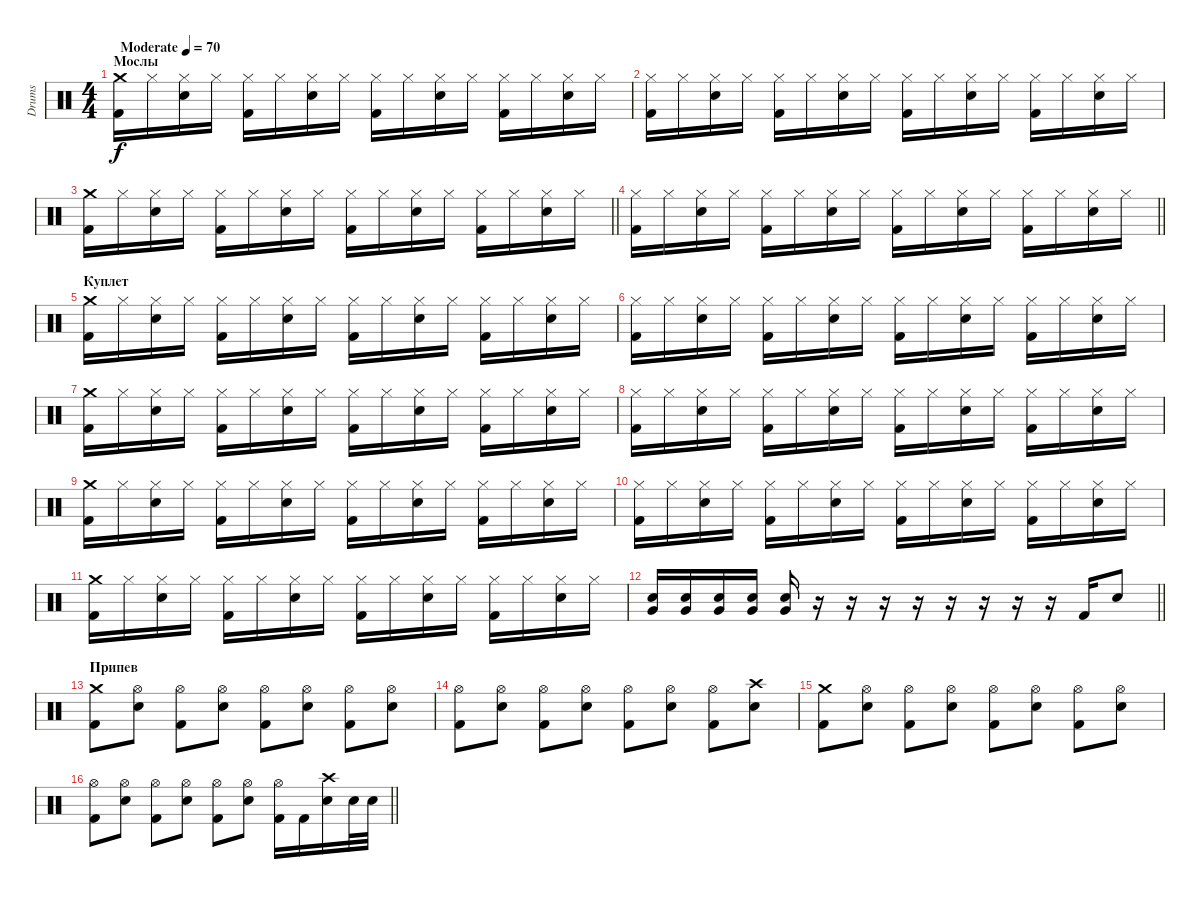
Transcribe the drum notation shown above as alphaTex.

\track ("Drums" "Drums") {instrument percussion}
\staff {score}
\articulation defaults
\ts (4 4)
\section ("" "Мослы")
\tempo (70 "Moderate")
\clef neutral
\ks c
("Crash medium (hit)" "Kick (hit) 2").16{dy f} "Hi-Hat (closed)".16 ("Hi-Hat (closed)" "Snare (hit) 2").16 "Hi-Hat (closed)".16 ("Hi-Hat (closed)" "Kick (hit) 2").16 "Hi-Hat (closed)".16 ("Hi-Hat (closed)" "Snare (hit) 2").16 "Hi-Hat (closed)".16 ("Hi-Hat (closed)" "Kick (hit) 2").16 "Hi-Hat (closed)".16 ("Hi-Hat (closed)" "Snare (hit) 2").16 "Hi-Hat (closed)".16 ("Hi-Hat (closed)" "Kick (hit) 2").16 "Hi-Hat (closed)".16 ("Hi-Hat (closed)" "Snare (hit) 2").16 "Hi-Hat (closed)".16 |
("Hi-Hat (closed)" "Kick (hit) 2").16 "Hi-Hat (closed)".16 ("Hi-Hat (closed)" "Snare (hit) 2").16 "Hi-Hat (closed)".16 ("Hi-Hat (closed)" "Kick (hit) 2").16 "Hi-Hat (closed)".16 ("Hi-Hat (closed)" "Snare (hit) 2").16 "Hi-Hat (closed)".16 ("Hi-Hat (closed)" "Kick (hit) 2").16 "Hi-Hat (closed)".16 ("Hi-Hat (closed)" "Snare (hit) 2").16 "Hi-Hat (closed)".16 ("Hi-Hat (closed)" "Kick (hit) 2").16 "Hi-Hat (closed)".16 ("Hi-Hat (closed)" "Snare (hit) 2").16 "Hi-Hat (closed)".16 |
\barLineRight lightlight
("Crash medium (hit)" "Kick (hit) 2").16 "Hi-Hat (closed)".16 ("Hi-Hat (closed)" "Snare (hit) 2").16 "Hi-Hat (closed)".16 ("Hi-Hat (closed)" "Kick (hit) 2").16 "Hi-Hat (closed)".16 ("Hi-Hat (closed)" "Snare (hit) 2").16 "Hi-Hat (closed)".16 ("Hi-Hat (closed)" "Kick (hit) 2").16 "Hi-Hat (closed)".16 ("Hi-Hat (closed)" "Snare (hit) 2").16 "Hi-Hat (closed)".16 ("Hi-Hat (closed)" "Kick (hit) 2").16 "Hi-Hat (closed)".16 ("Hi-Hat (closed)" "Snare (hit) 2").16 "Hi-Hat (closed)".16 |
\barLineRight lightlight
("Hi-Hat (closed)" "Kick (hit) 2").16 "Hi-Hat (closed)".16 ("Hi-Hat (closed)" "Snare (hit) 2").16 "Hi-Hat (closed)".16 ("Hi-Hat (closed)" "Kick (hit) 2").16 "Hi-Hat (closed)".16 ("Hi-Hat (closed)" "Snare (hit) 2").16 "Hi-Hat (closed)".16 ("Hi-Hat (closed)" "Kick (hit) 2").16 "Hi-Hat (closed)".16 ("Hi-Hat (closed)" "Snare (hit) 2").16 "Hi-Hat (closed)".16 ("Hi-Hat (closed)" "Kick (hit) 2").16 "Hi-Hat (closed)".16 ("Hi-Hat (closed)" "Snare (hit) 2").16 "Hi-Hat (closed)".16 |
\section ("" "Куплет")
("Crash medium (hit)" "Kick (hit) 2").16 "Hi-Hat (closed)".16 ("Hi-Hat (closed)" "Snare (hit) 2").16 "Hi-Hat (closed)".16 ("Hi-Hat (closed)" "Kick (hit) 2").16 "Hi-Hat (closed)".16 ("Hi-Hat (closed)" "Snare (hit) 2").16 "Hi-Hat (closed)".16 ("Hi-Hat (closed)" "Kick (hit) 2").16 "Hi-Hat (closed)".16 ("Hi-Hat (closed)" "Snare (hit) 2").16 "Hi-Hat (closed)".16 ("Hi-Hat (closed)" "Kick (hit) 2").16 "Hi-Hat (closed)".16 ("Hi-Hat (closed)" "Snare (hit) 2").16 "Hi-Hat (closed)".16 |
("Hi-Hat (closed)" "Kick (hit) 2").16 "Hi-Hat (closed)".16 ("Hi-Hat (closed)" "Snare (hit) 2").16 "Hi-Hat (closed)".16 ("Hi-Hat (closed)" "Kick (hit) 2").16 "Hi-Hat (closed)".16 ("Hi-Hat (closed)" "Snare (hit) 2").16 "Hi-Hat (closed)".16 ("Hi-Hat (closed)" "Kick (hit) 2").16 "Hi-Hat (closed)".16 ("Hi-Hat (closed)" "Snare (hit) 2").16 "Hi-Hat (closed)".16 ("Hi-Hat (closed)" "Kick (hit) 2").16 "Hi-Hat (closed)".16 ("Hi-Hat (closed)" "Snare (hit) 2").16 "Hi-Hat (closed)".16 |
("Crash medium (hit)" "Kick (hit) 2").16 "Hi-Hat (closed)".16 ("Hi-Hat (closed)" "Snare (hit) 2").16 "Hi-Hat (closed)".16 ("Hi-Hat (closed)" "Kick (hit) 2").16 "Hi-Hat (closed)".16 ("Hi-Hat (closed)" "Snare (hit) 2").16 "Hi-Hat (closed)".16 ("Hi-Hat (closed)" "Kick (hit) 2").16 "Hi-Hat (closed)".16 ("Hi-Hat (closed)" "Snare (hit) 2").16 "Hi-Hat (closed)".16 ("Hi-Hat (closed)" "Kick (hit) 2").16 "Hi-Hat (closed)".16 ("Hi-Hat (closed)" "Snare (hit) 2").16 "Hi-Hat (closed)".16 |
("Hi-Hat (closed)" "Kick (hit) 2").16 "Hi-Hat (closed)".16 ("Hi-Hat (closed)" "Snare (hit) 2").16 "Hi-Hat (closed)".16 ("Hi-Hat (closed)" "Kick (hit) 2").16 "Hi-Hat (closed)".16 ("Hi-Hat (closed)" "Snare (hit) 2").16 "Hi-Hat (closed)".16 ("Hi-Hat (closed)" "Kick (hit) 2").16 "Hi-Hat (closed)".16 ("Hi-Hat (closed)" "Snare (hit) 2").16 "Hi-Hat (closed)".16 ("Hi-Hat (closed)" "Kick (hit) 2").16 "Hi-Hat (closed)".16 ("Hi-Hat (closed)" "Snare (hit) 2").16 "Hi-Hat (closed)".16 |
("Crash medium (hit)" "Kick (hit) 2").16 "Hi-Hat (closed)".16 ("Hi-Hat (closed)" "Snare (hit) 2").16 "Hi-Hat (closed)".16 ("Hi-Hat (closed)" "Kick (hit) 2").16 "Hi-Hat (closed)".16 ("Hi-Hat (closed)" "Snare (hit) 2").16 "Hi-Hat (closed)".16 ("Hi-Hat (closed)" "Kick (hit) 2").16 "Hi-Hat (closed)".16 ("Hi-Hat (closed)" "Snare (hit) 2").16 "Hi-Hat (closed)".16 ("Hi-Hat (closed)" "Kick (hit) 2").16 "Hi-Hat (closed)".16 ("Hi-Hat (closed)" "Snare (hit) 2").16 "Hi-Hat (closed)".16 |
("Hi-Hat (closed)" "Kick (hit) 2").16 "Hi-Hat (closed)".16 ("Hi-Hat (closed)" "Snare (hit) 2").16 "Hi-Hat (closed)".16 ("Hi-Hat (closed)" "Kick (hit) 2").16 "Hi-Hat (closed)".16 ("Hi-Hat (closed)" "Snare (hit) 2").16 "Hi-Hat (closed)".16 ("Hi-Hat (closed)" "Kick (hit) 2").16 "Hi-Hat (closed)".16 ("Hi-Hat (closed)" "Snare (hit) 2").16 "Hi-Hat (closed)".16 ("Hi-Hat (closed)" "Kick (hit) 2").16 "Hi-Hat (closed)".16 ("Hi-Hat (closed)" "Snare (hit) 2").16 "Hi-Hat (closed)".16 |
("Crash medium (hit)" "Kick (hit) 2").16 "Hi-Hat (closed)".16 ("Hi-Hat (closed)" "Snare (hit) 2").16 "Hi-Hat (closed)".16 ("Hi-Hat (closed)" "Kick (hit) 2").16 "Hi-Hat (closed)".16 ("Hi-Hat (closed)" "Snare (hit) 2").16 "Hi-Hat (closed)".16 ("Hi-Hat (closed)" "Kick (hit) 2").16 "Hi-Hat (closed)".16 ("Hi-Hat (closed)" "Snare (hit) 2").16 "Hi-Hat (closed)".16 ("Hi-Hat (closed)" "Kick (hit) 2").16 "Hi-Hat (closed)".16 ("Hi-Hat (closed)" "Snare (hit) 2").16 "Hi-Hat (closed)".16 |
\barLineRight lightlight
("Very Low Tom (hit)" "Snare (hit) 2").16 ("Very Low Tom (hit)" "Snare (hit) 2").16 ("Very Low Tom (hit)" "Snare (hit) 2").16 ("Very Low Tom (hit)" "Snare (hit) 2").16 ("Very Low Tom (hit)" "Snare (hit) 2").16 r.16 r.16 r.16 r.16 r.16 r.16 r.16 r.16 "Kick (hit) 2".16 "Snare (hit) 2".8 |
\section ("" "Припев")
("Crash medium (hit)" "Kick (hit) 2").8 ("Hi-Hat (open)" "Snare (hit) 2").8 ("Hi-Hat (open)" "Kick (hit) 2").8 ("Hi-Hat (open)" "Snare (hit) 2").8 ("Hi-Hat (open)" "Kick (hit) 2").8 ("Hi-Hat (open)" "Snare (hit) 2").8 ("Hi-Hat (open)" "Kick (hit) 2").8 ("Hi-Hat (open)" "Snare (hit) 2").8 |
("Hi-Hat (open)" "Kick (hit) 2").8 ("Hi-Hat (open)" "Snare (hit) 2").8 ("Hi-Hat (open)" "Kick (hit) 2").8 ("Hi-Hat (open)" "Snare (hit) 2").8 ("Hi-Hat (open)" "Kick (hit) 2").8 ("Hi-Hat (open)" "Snare (hit) 2").8 ("Hi-Hat (open)" "Kick (hit) 2").8 ("Crash high (hit)" "Snare (hit) 2").8 |
("Crash medium (hit)" "Kick (hit) 2").8 ("Hi-Hat (open)" "Snare (hit) 2").8 ("Hi-Hat (open)" "Kick (hit) 2").8 ("Hi-Hat (open)" "Snare (hit) 2").8 ("Hi-Hat (open)" "Kick (hit) 2").8 ("Hi-Hat (open)" "Snare (hit) 2").8 ("Hi-Hat (open)" "Kick (hit) 2").8 ("Hi-Hat (open)" "Snare (hit) 2").8 |
\barLineRight lightlight
("Hi-Hat (open)" "Kick (hit) 2").8 ("Hi-Hat (open)" "Snare (hit) 2").8 ("Hi-Hat (open)" "Kick (hit) 2").8 ("Hi-Hat (open)" "Snare (hit) 2").8 ("Hi-Hat (open)" "Kick (hit) 2").8 ("Hi-Hat (open)" "Snare (hit) 2").8 ("Hi-Hat (open)" "Kick (hit) 2").16 "Kick (hit) 2".16 ("Crash high (hit)" "Snare (hit) 2").16 "Snare (hit) 2".32 "Snare (hit) 2".32
